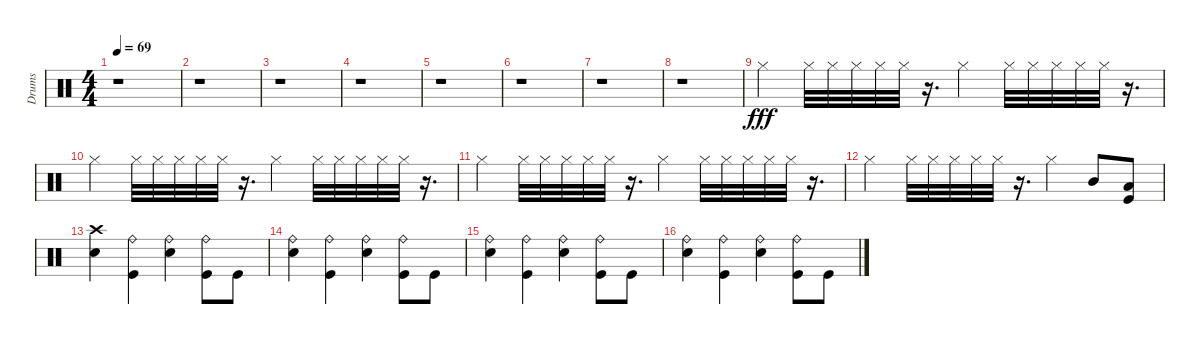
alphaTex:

\track ("Drums" "Drums") {instrument percussion}
\staff {score}
\articulation defaults
\ts (4 4)
\tempo 69
\clef neutral
\ks c
r.1{dy fff} |
r.1 |
r.1 |
r.1 |
r.1 |
r.1 |
r.1 |
r.1 |
"Hi-Hat (closed)".4 "Hi-Hat (closed)".32 "Hi-Hat (closed)".32 "Hi-Hat (closed)".32 "Hi-Hat (closed)".32 "Hi-Hat (closed)".32 r.16{d} "Hi-Hat (closed)".4 "Hi-Hat (closed)".32 "Hi-Hat (closed)".32 "Hi-Hat (closed)".32 "Hi-Hat (closed)".32 "Hi-Hat (closed)".32 r.16{d} |
"Hi-Hat (closed)".4 "Hi-Hat (closed)".32 "Hi-Hat (closed)".32 "Hi-Hat (closed)".32 "Hi-Hat (closed)".32 "Hi-Hat (closed)".32 r.16{d} "Hi-Hat (closed)".4 "Hi-Hat (closed)".32 "Hi-Hat (closed)".32 "Hi-Hat (closed)".32 "Hi-Hat (closed)".32 "Hi-Hat (closed)".32 r.16{d} |
"Hi-Hat (closed)".4 "Hi-Hat (closed)".32 "Hi-Hat (closed)".32 "Hi-Hat (closed)".32 "Hi-Hat (closed)".32 "Hi-Hat (closed)".32 r.16{d} "Hi-Hat (closed)".4 "Hi-Hat (closed)".32 "Hi-Hat (closed)".32 "Hi-Hat (closed)".32 "Hi-Hat (closed)".32 "Hi-Hat (closed)".32 r.16{d} |
"Hi-Hat (closed)".4 "Hi-Hat (closed)".32 "Hi-Hat (closed)".32 "Hi-Hat (closed)".32 "Hi-Hat (closed)".32 "Hi-Hat (closed)".32 r.16{d} "Hi-Hat (closed)".4 "Mid Tom (hit)".8 ("Kick (hit)" "Low Tom (hit)").8 |
("Crash high (hit)" "Snare (hit) 2").4 ("Kick (hit)" "Ride (bell)").4 ("Ride (bell)" "Snare (hit) 2").4 ("Kick (hit)" "Ride (bell)").8 "Kick (hit)".8 |
("Ride (bell)" "Snare (hit) 2").4 ("Kick (hit)" "Ride (bell)").4 ("Ride (bell)" "Snare (hit) 2").4 ("Kick (hit)" "Ride (bell)").8 "Kick (hit)".8 |
("Ride (bell)" "Snare (hit) 2").4 ("Kick (hit)" "Ride (bell)").4 ("Ride (bell)" "Snare (hit) 2").4 ("Kick (hit)" "Ride (bell)").8 "Kick (hit)".8 |
("Ride (bell)" "Snare (hit) 2").4 ("Kick (hit)" "Ride (bell)").4 ("Ride (bell)" "Snare (hit) 2").4 ("Kick (hit)" "Ride (bell)").8 "Kick (hit)".8
